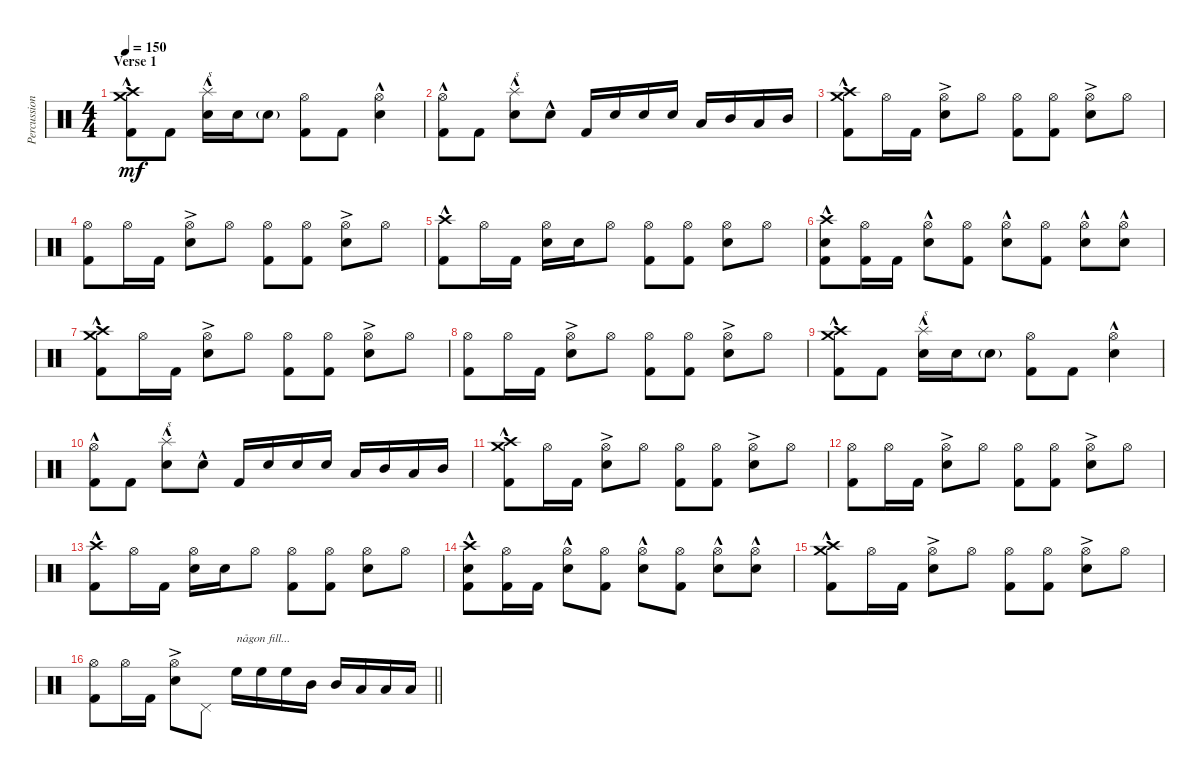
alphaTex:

\track ("Percussion" "Percussion") {instrument percussion}
\staff {score}
\articulation defaults
\ts (4 4)
\section ("" "Verse 1")
\tempo 150
\clef neutral
\ks c
("Crash medium (hit)"{hac} "Crash high (hit)"{hac} "Kick (hit) 2").8{dy mf} "Kick (hit) 2".8 ("Splash (hit)"{hac} "Electric Snare (hit)").16{txt "s"} "Electric Snare (hit)".16 "Electric Snare (hit)"{g}.8 ("Hi-Hat (open)" "Kick (hit) 2").8 "Kick (hit) 2".8 ("Hi-Hat (open)" "Electric Snare (hit)"{hac}).4 |
("Hi-Hat (open)"{hac} "Kick (hit) 2").8 "Kick (hit) 2".8 ("Splash (hit)" "Electric Snare (hit)"{hac}).8{txt "s"} "Electric Snare (hit)"{hac}.8 "Kick (hit) 2".16 "Electric Snare (hit)".16 "Electric Snare (hit)".16 "Electric Snare (hit)".16 "Low Tom (hit)".16 "Mid Tom (hit)".16 "Low Tom (hit)".16 "Mid Tom (hit)".16 |
("Crash high (hit)"{hac} "Crash medium (hit)" "Kick (hit) 2").8 "Hi-Hat (open)".16 "Kick (hit) 2".16 ("Hi-Hat (open)" "Electric Snare (hit)"{ac}).8 "Hi-Hat (open)".8 ("Hi-Hat (open)" "Kick (hit) 2").8 ("Hi-Hat (open)" "Kick (hit) 2").8 ("Hi-Hat (open)" "Electric Snare (hit)"{ac}).8 "Hi-Hat (open)".8 |
("Hi-Hat (open)" "Kick (hit) 2").8 "Hi-Hat (open)".16 "Kick (hit) 2".16 ("Hi-Hat (open)" "Electric Snare (hit)"{ac}).8 "Hi-Hat (open)".8 ("Hi-Hat (open)" "Kick (hit) 2").8 ("Hi-Hat (open)" "Kick (hit) 2").8 ("Hi-Hat (open)" "Electric Snare (hit)"{ac}).8 "Hi-Hat (open)".8 |
("Crash high (hit)"{hac} "Kick (hit) 2").8 "Hi-Hat (open)".16 "Kick (hit) 2".16 ("Hi-Hat (open)" "Electric Snare (hit)").16 "Electric Snare (hit)".16 "Hi-Hat (open)".8 ("Hi-Hat (open)" "Kick (hit) 2").8 ("Hi-Hat (open)" "Kick (hit) 2").8 ("Hi-Hat (open)" "Electric Snare (hit)").8 "Hi-Hat (open)".8 |
("Crash high (hit)"{hac} "Electric Snare (hit)"{hac} "Kick (hit) 2").8 ("Hi-Hat (open)" "Kick (hit) 2").16 "Kick (hit) 2".16 ("Hi-Hat (open)" "Electric Snare (hit)"{hac}).8 ("Hi-Hat (open)" "Kick (hit) 2").8 ("Hi-Hat (open)" "Electric Snare (hit)"{hac}).8 ("Hi-Hat (open)" "Kick (hit) 2").8 ("Hi-Hat (open)" "Electric Snare (hit)"{hac}).8 ("Hi-Hat (open)" "Electric Snare (hit)"{hac}).8 |
("Crash high (hit)"{hac} "Crash medium (hit)" "Kick (hit) 2").8 "Hi-Hat (open)".16 "Kick (hit) 2".16 ("Hi-Hat (open)" "Electric Snare (hit)"{ac}).8 "Hi-Hat (open)".8 ("Hi-Hat (open)" "Kick (hit) 2").8 ("Hi-Hat (open)" "Kick (hit) 2").8 ("Hi-Hat (open)" "Electric Snare (hit)"{ac}).8 "Hi-Hat (open)".8 |
("Hi-Hat (open)" "Kick (hit) 2").8 "Hi-Hat (open)".16 "Kick (hit) 2".16 ("Hi-Hat (open)" "Electric Snare (hit)"{ac}).8 "Hi-Hat (open)".8 ("Hi-Hat (open)" "Kick (hit) 2").8 ("Hi-Hat (open)" "Kick (hit) 2").8 ("Hi-Hat (open)" "Electric Snare (hit)"{ac}).8 "Hi-Hat (open)".8 |
("Crash medium (hit)"{hac} "Crash high (hit)"{hac} "Kick (hit) 2").8 "Kick (hit) 2".8 ("Splash (hit)"{hac} "Electric Snare (hit)").16{txt "s"} "Electric Snare (hit)".16 "Electric Snare (hit)"{g}.8 ("Hi-Hat (open)" "Kick (hit) 2").8 "Kick (hit) 2".8 ("Hi-Hat (open)" "Electric Snare (hit)"{hac}).4 |
("Hi-Hat (open)"{hac} "Kick (hit) 2").8 "Kick (hit) 2".8 ("Splash (hit)" "Electric Snare (hit)"{hac}).8{txt "s"} "Electric Snare (hit)"{hac}.8 "Kick (hit) 2".16 "Electric Snare (hit)".16 "Electric Snare (hit)".16 "Electric Snare (hit)".16 "Low Tom (hit)".16 "Mid Tom (hit)".16 "Low Tom (hit)".16 "Mid Tom (hit)".16 |
("Crash high (hit)"{hac} "Crash medium (hit)" "Kick (hit) 2").8 "Hi-Hat (open)".16 "Kick (hit) 2".16 ("Hi-Hat (open)" "Electric Snare (hit)"{ac}).8 "Hi-Hat (open)".8 ("Hi-Hat (open)" "Kick (hit) 2").8 ("Hi-Hat (open)" "Kick (hit) 2").8 ("Hi-Hat (open)" "Electric Snare (hit)"{ac}).8 "Hi-Hat (open)".8 |
("Hi-Hat (open)" "Kick (hit) 2").8 "Hi-Hat (open)".16 "Kick (hit) 2".16 ("Hi-Hat (open)" "Electric Snare (hit)"{ac}).8 "Hi-Hat (open)".8 ("Hi-Hat (open)" "Kick (hit) 2").8 ("Hi-Hat (open)" "Kick (hit) 2").8 ("Hi-Hat (open)" "Electric Snare (hit)"{ac}).8 "Hi-Hat (open)".8 |
("Crash high (hit)"{hac} "Kick (hit) 2").8 "Hi-Hat (open)".16 "Kick (hit) 2".16 ("Hi-Hat (open)" "Electric Snare (hit)").16 "Electric Snare (hit)".16 "Hi-Hat (open)".8 ("Hi-Hat (open)" "Kick (hit) 2").8 ("Hi-Hat (open)" "Kick (hit) 2").8 ("Hi-Hat (open)" "Electric Snare (hit)").8 "Hi-Hat (open)".8 |
("Crash high (hit)"{hac} "Electric Snare (hit)"{hac} "Kick (hit) 2").8 ("Hi-Hat (open)" "Kick (hit) 2").16 "Kick (hit) 2".16 ("Hi-Hat (open)" "Electric Snare (hit)"{hac}).8 ("Hi-Hat (open)" "Kick (hit) 2").8 ("Hi-Hat (open)" "Electric Snare (hit)"{hac}).8 ("Hi-Hat (open)" "Kick (hit) 2").8 ("Hi-Hat (open)" "Electric Snare (hit)"{hac}).8 ("Hi-Hat (open)" "Electric Snare (hit)"{hac}).8 |
("Crash high (hit)"{hac} "Crash medium (hit)" "Kick (hit) 2").8 "Hi-Hat (open)".16 "Kick (hit) 2".16 ("Hi-Hat (open)" "Electric Snare (hit)"{ac}).8 "Hi-Hat (open)".8 ("Hi-Hat (open)" "Kick (hit) 2").8 ("Hi-Hat (open)" "Kick (hit) 2").8 ("Hi-Hat (open)" "Electric Snare (hit)"{ac}).8 "Hi-Hat (open)".8 |
\barLineRight lightlight
("Hi-Hat (open)" "Kick (hit) 2").8 "Hi-Hat (open)".16 "Kick (hit) 2".16 ("Hi-Hat (open)" "Electric Snare (hit)"{ac}).8 "Pedal Hi-Hat (hit)".8 "High Floor Tom (hit)".16{txt "någon fill..."} "High Floor Tom (hit)".16 "High Floor Tom (hit)".16 "Mid Tom (hit)".16 "Mid Tom (hit)".16 "Low Floor Tom (hit)".16 "Low Floor Tom (hit)".16 "Low Floor Tom (hit)".16
